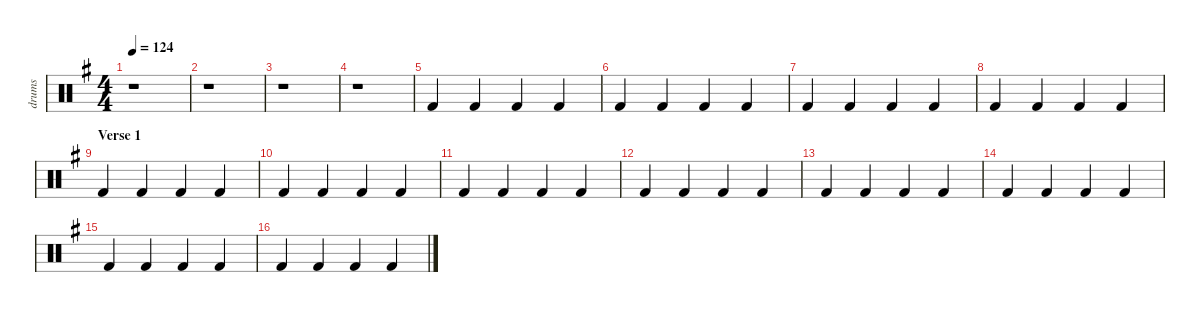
\defaultSystemsLayout 4
\hideDynamics
\bracketExtendMode nobrackets
\otherSystemsTrackNameOrientation horizontal
\track ("drums" "drums") {instrument percussion}
\staff {score}
\articulation defaults
\ts (4 4)
\tempo 124
\clef neutral
\scale
1.17024
\ks eminor
r.1{dy mf beam Down} |
\scale
0.943253 r.1{beam Down} |
\scale
0.943253 r.1{beam Down} |
\scale
0.943253 r.1{beam Down} |
\scale
1.07945 "Kick (hit) 2"{acc forcenatural}.4{beam Up} "Kick (hit) 2"{acc forcenatural}.4{beam Up} "Kick (hit) 2"{acc forcenatural}.4{beam Up} "Kick (hit) 2"{acc forcenatural}.4{beam Up} |
\scale
0.973518 "Kick (hit) 2"{acc forcenatural}.4{beam Up} "Kick (hit) 2"{acc forcenatural}.4{beam Up} "Kick (hit) 2"{acc forcenatural}.4{beam Up} "Kick (hit) 2"{acc forcenatural}.4{beam Up} |
\scale
0.973518 "Kick (hit) 2"{acc forcenatural}.4{beam Up} "Kick (hit) 2"{acc forcenatural}.4{beam Up} "Kick (hit) 2"{acc forcenatural}.4{beam Up} "Kick (hit) 2"{acc forcenatural}.4{beam Up} |
\scale
0.973518 "Kick (hit) 2"{acc forcenatural}.4{beam Up} "Kick (hit) 2"{acc forcenatural}.4{beam Up} "Kick (hit) 2"{acc forcenatural}.4{beam Up} "Kick (hit) 2"{acc forcenatural}.4{beam Up} |
\section ("" "Verse 1")
\scale
1.07945 "Kick (hit) 2"{acc forcenatural}.4{beam Up} "Kick (hit) 2"{acc forcenatural}.4{beam Up} "Kick (hit) 2"{acc forcenatural}.4{beam Up} "Kick (hit) 2"{acc forcenatural}.4{beam Up} |
\scale
0.973518 "Kick (hit) 2"{acc forcenatural}.4{beam Up} "Kick (hit) 2"{acc forcenatural}.4{beam Up} "Kick (hit) 2"{acc forcenatural}.4{beam Up} "Kick (hit) 2"{acc forcenatural}.4{beam Up} |
\scale
0.973518 "Kick (hit) 2"{acc forcenatural}.4{beam Up} "Kick (hit) 2"{acc forcenatural}.4{beam Up} "Kick (hit) 2"{acc forcenatural}.4{beam Up} "Kick (hit) 2"{acc forcenatural}.4{beam Up} |
\scale
0.973518 "Kick (hit) 2"{acc forcenatural}.4{beam Up} "Kick (hit) 2"{acc forcenatural}.4{beam Up} "Kick (hit) 2"{acc forcenatural}.4{beam Up} "Kick (hit) 2"{acc forcenatural}.4{beam Up} |
\scale
1.07945 "Kick (hit) 2"{acc forcenatural}.4{beam Up} "Kick (hit) 2"{acc forcenatural}.4{beam Up} "Kick (hit) 2"{acc forcenatural}.4{beam Up} "Kick (hit) 2"{acc forcenatural}.4{beam Up} |
\scale
0.973518 "Kick (hit) 2"{acc forcenatural}.4{beam Up} "Kick (hit) 2"{acc forcenatural}.4{beam Up} "Kick (hit) 2"{acc forcenatural}.4{beam Up} "Kick (hit) 2"{acc forcenatural}.4{beam Up} |
\scale
0.973518 "Kick (hit) 2"{acc forcenatural}.4{beam Up} "Kick (hit) 2"{acc forcenatural}.4{beam Up} "Kick (hit) 2"{acc forcenatural}.4{beam Up} "Kick (hit) 2"{acc forcenatural}.4{beam Up} |
\scale
0.973518 "Kick (hit) 2"{acc forcenatural}.4{beam Up} "Kick (hit) 2"{acc forcenatural}.4{beam Up} "Kick (hit) 2"{acc forcenatural}.4{beam Up} "Kick (hit) 2"{acc forcenatural}.4{beam Up}
